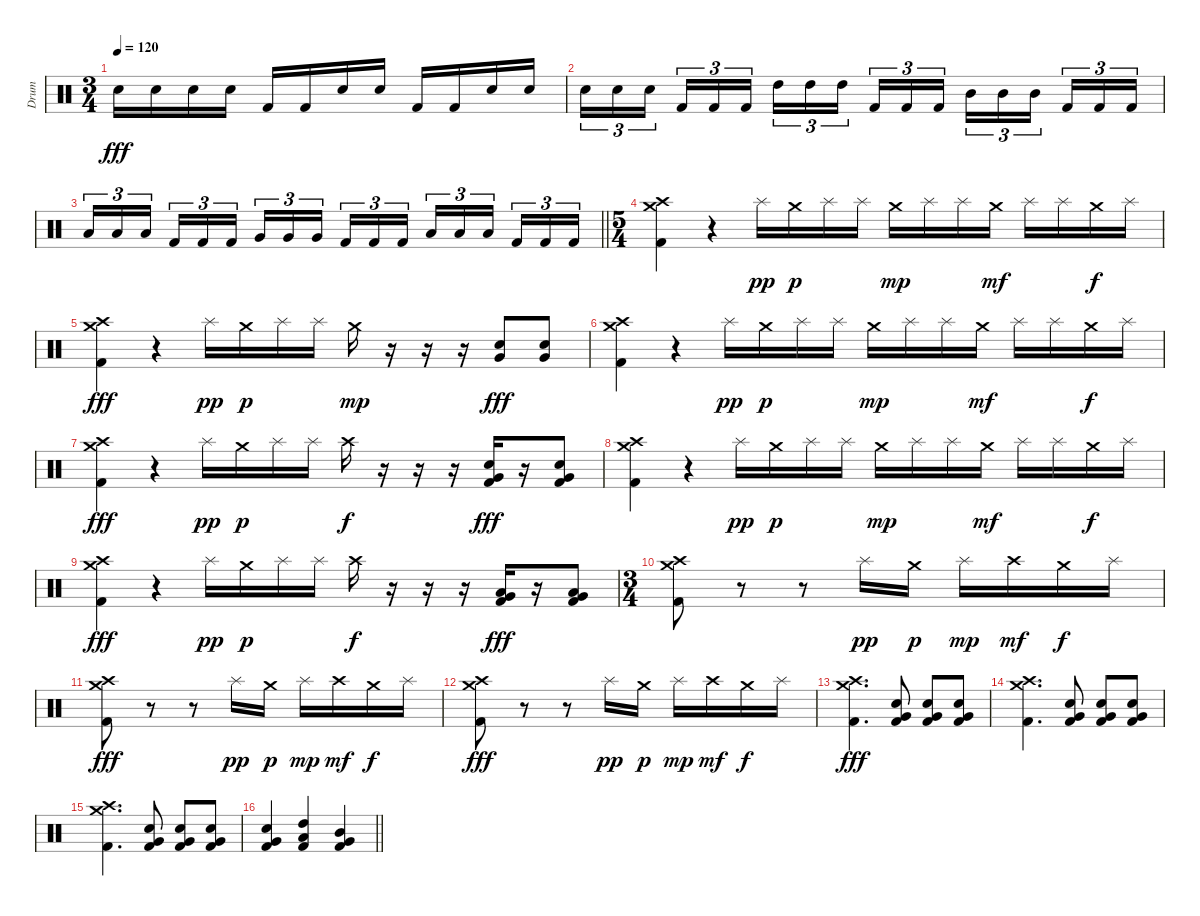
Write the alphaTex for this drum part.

\track ("Drum" "Drum") {instrument percussion}
\staff {score}
\articulation defaults
\ts (3 4)
\tempo 120
\clef neutral
\ks c "Electric Snare (hit)".16{dy fff} "Electric Snare (hit)".16 "Electric Snare (hit)".16 "Electric Snare (hit)".16 "Kick (hit) 2".16 "Kick (hit) 2".16 "Electric Snare (hit)".16 "Electric Snare (hit)".16 "Kick (hit) 2".16 "Kick (hit) 2".16 "Electric Snare (hit)".16 "Electric Snare (hit)".16
|
"Electric Snare (hit)".16{tu (3 2)} "Electric Snare (hit)".16{tu (3 2)} "Electric Snare (hit)".16{tu (3 2) beam splitsecondary} "Kick (hit) 2".16{tu (3 2)} "Kick (hit) 2".16{tu (3 2)} "Kick (hit) 2".16{tu (3 2)} "High Tom (hit)".16{tu (3 2)} "High Tom (hit)".16{tu (3 2)} "High Tom (hit)".16{tu (3 2) beam splitsecondary} "Kick (hit) 2".16{tu (3 2)} "Kick (hit) 2".16{tu (3 2)} "Kick (hit) 2".16{tu (3 2)} "Mid Tom (hit)".16{tu (3 2)} "Mid Tom (hit)".16{tu (3 2)} "Mid Tom (hit)".16{tu (3 2) beam splitsecondary} "Kick (hit) 2".16{tu (3 2)} "Kick (hit) 2".16{tu (3 2)} "Kick (hit) 2".16{tu (3 2)} |
\barLineRight lightlight "Low Tom (hit)".16{tu (3 2)} "Low Tom (hit)".16{tu (3 2)} "Low Tom (hit)".16{tu (3 2) beam splitsecondary} "Kick (hit) 2".16{tu (3 2)} "Kick (hit) 2".16{tu (3 2)} "Kick (hit) 2".16{tu (3 2)} "Very Low Tom (hit)".16{tu (3 2)} "Very Low Tom (hit)".16{tu (3 2)} "Very Low Tom (hit)".16{tu (3 2) beam splitsecondary} "Kick (hit) 2".16{tu (3 2)} "Kick (hit) 2".16{tu (3 2)} "Kick (hit) 2".16{tu (3 2)} "Low Floor Tom (hit)".16{tu (3 2)} "Low Floor Tom (hit)".16{tu (3 2)} "Low Floor Tom (hit)".16{tu (3 2) beam splitsecondary} "Kick (hit) 2".16{tu (3 2)} "Kick (hit) 2".16{tu (3 2)} "Kick (hit) 2".16{tu (3 2)}
|
\ts (5 4)
("Kick (hit) 2" "Crash medium (hit)" "Crash high (hit)").4 r.4 "Splash (hit)".16{dy pp} "Crash medium (hit)".16{dy p} "Splash (hit)".16 "Splash (hit)".16 "Crash medium (hit)".16{dy mp} "Splash (hit)".16 "Splash (hit)".16 "Crash medium (hit)".16{dy mf} "Splash (hit)".16 "Splash (hit)".16 "Crash medium (hit)".16{dy f} "Splash (hit)".16 |
("Kick (hit) 2" "Crash medium (hit)" "Crash high (hit)").4{dy fff} r.4 "Splash (hit)".16{dy pp} "Crash medium (hit)".16{dy p} "Splash (hit)".16 "Splash (hit)".16 "Crash medium (hit)".16{dy mp} r.16 r.16 r.16 ("Electric Snare (hit)" "Very Low Tom (hit)").8{dy fff} ("Electric Snare (hit)" "Very Low Tom (hit)").8 |
("Kick (hit) 2" "Crash medium (hit)" "Crash high (hit)").4 r.4 "Splash (hit)".16{dy pp} "Crash medium (hit)".16{dy p} "Splash (hit)".16 "Splash (hit)".16 "Crash medium (hit)".16{dy mp} "Splash (hit)".16 "Splash (hit)".16 "Crash medium (hit)".16{dy mf} "Splash (hit)".16 "Splash (hit)".16 "Crash medium (hit)".16{dy f} "Splash (hit)".16 |
("Kick (hit) 2" "Crash medium (hit)" "Crash high (hit)").4{dy fff} r.4 "Splash (hit)".16{dy pp} "Crash medium (hit)".16{dy p} "Splash (hit)".16 "Splash (hit)".16 "Crash high (hit)".16{dy f} r.16 r.16 r.16 ("Electric Snare (hit)" "Very Low Tom (hit)" "Kick (hit) 2").16{dy fff} r.16 ("Electric Snare (hit)" "Very Low Tom (hit)" "Kick (hit) 2").8 |
("Kick (hit) 2" "Crash medium (hit)" "Crash high (hit)").4 r.4 "Splash (hit)".16{dy pp} "Crash medium (hit)".16{dy p} "Splash (hit)".16 "Splash (hit)".16 "Crash medium (hit)".16{dy mp} "Splash (hit)".16 "Splash (hit)".16 "Crash medium (hit)".16{dy mf} "Splash (hit)".16 "Splash (hit)".16 "Crash medium (hit)".16{dy f} "Splash (hit)".16 |
("Kick (hit) 2" "Crash medium (hit)" "Crash high (hit)").4{dy fff} r.4 "Splash (hit)".16{dy pp} "Crash medium (hit)".16{dy p} "Splash (hit)".16 "Splash (hit)".16 "Crash high (hit)".16{dy f} r.16 r.16 r.16 ("Low Floor Tom (hit)" "Very Low Tom (hit)" "Kick (hit) 2").16{dy fff} r.16 ("Low Floor Tom (hit)" "Very Low Tom (hit)" "Kick (hit) 2").8 |
\ts (3 4)
("Kick (hit) 2" "Crash medium (hit)" "Crash high (hit)").8 r.8 r.8 "Splash (hit)".16{dy pp} "Crash medium (hit)".16{dy p} "Splash (hit)".16{dy mp} "Crash high (hit)".16{dy mf} "Crash medium (hit)".16{dy f} "Splash (hit)".16 |
("Kick (hit) 2" "Crash medium (hit)" "Crash high (hit)").8{dy fff} r.8 r.8 "Splash (hit)".16{dy pp} "Crash medium (hit)".16{dy p} "Splash (hit)".16{dy mp} "Crash high (hit)".16{dy mf} "Crash medium (hit)".16{dy f} "Splash (hit)".16 |
("Kick (hit) 2" "Crash medium (hit)" "Crash high (hit)").8{dy fff} r.8 r.8 "Splash (hit)".16{dy pp} "Crash medium (hit)".16{dy p} "Splash (hit)".16{dy mp} "Crash high (hit)".16{dy mf} "Crash medium (hit)".16{dy f} "Splash (hit)".16 |
("Kick (hit) 2" "Crash high (hit)" "Crash medium (hit)").4{d dy fff} ("Kick (hit) 2" "Electric Snare (hit)" "Very Low Tom (hit)").8 ("Kick (hit) 2" "Electric Snare (hit)" "Very Low Tom (hit)").8 ("Kick (hit) 2" "Electric Snare (hit)" "Very Low Tom (hit)").8 |
("Kick (hit) 2" "Crash high (hit)" "Crash medium (hit)").4{d} ("Kick (hit) 2" "Electric Snare (hit)" "Very Low Tom (hit)").8 ("Kick (hit) 2" "Electric Snare (hit)" "Very Low Tom (hit)").8 ("Kick (hit) 2" "Electric Snare (hit)" "Very Low Tom (hit)").8 |
("Kick (hit) 2" "Crash high (hit)" "Crash medium (hit)").4{d} ("Kick (hit) 2" "Electric Snare (hit)" "Very Low Tom (hit)").8 ("Kick (hit) 2" "Electric Snare (hit)" "Very Low Tom (hit)").8 ("Kick (hit) 2" "Electric Snare (hit)" "Very Low Tom (hit)").8 |
\barLineRight lightlight
("Electric Snare (hit)" "Very Low Tom (hit)" "Kick (hit) 2").4 ("High Tom (hit)" "Low Tom (hit)" "Kick (hit) 2").4 ("Mid Tom (hit)" "Very Low Tom (hit)" "Kick (hit) 2").4
